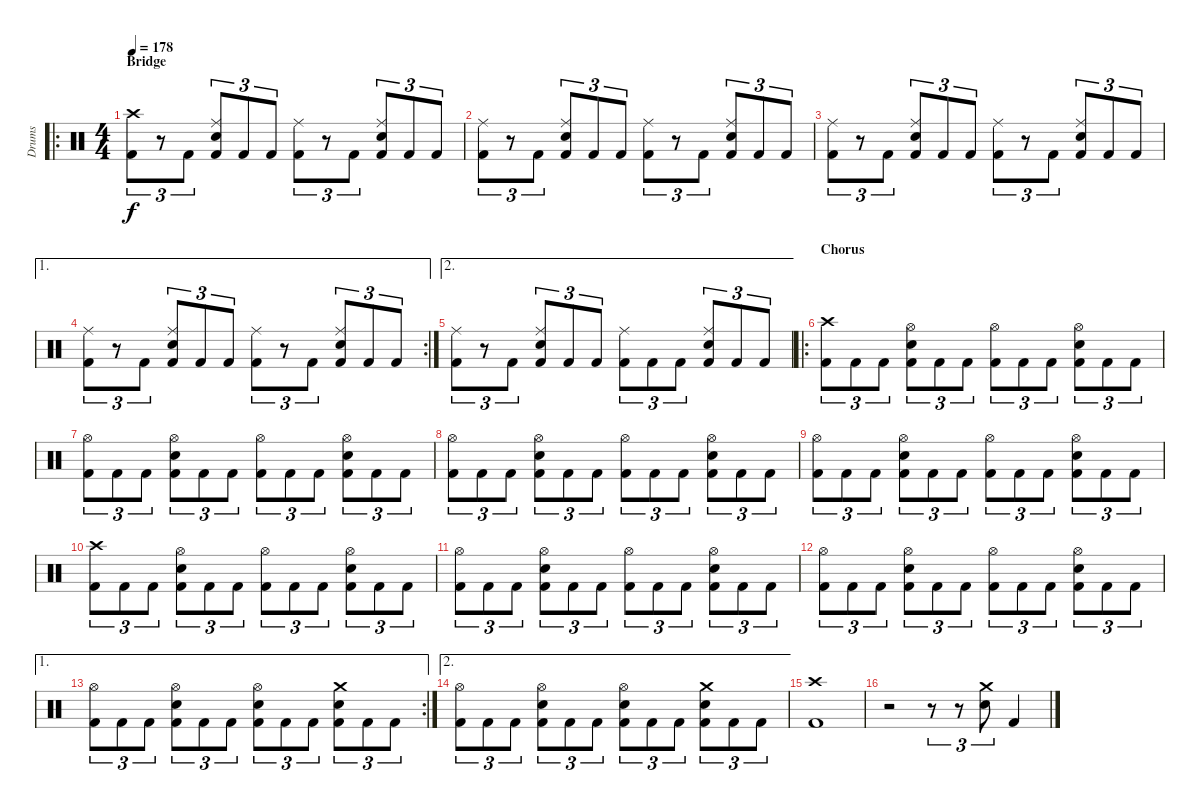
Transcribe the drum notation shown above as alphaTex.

\track ("Drums" "Drums") {instrument percussion}
\staff {score}
\articulation defaults
\ro
\ts (4 4)
\section ("" "Bridge")
\tempo 178
\clef neutral
\ks c
("Crash high (hit)" "Kick (hit) 2").8{tu (3 2) dy f} r.8{tu (3 2)} "Kick (hit) 2".8{tu (3 2)} ("Ride (middle)" "Electric Snare (hit)" "Kick (hit) 2").8{tu (3 2)} "Kick (hit) 2".8{tu (3 2)} "Kick (hit) 2".8{tu (3 2)} ("Ride (middle)" "Kick (hit) 2").8{tu (3 2)} r.8{tu (3 2)} "Kick (hit) 2".8{tu (3 2)} ("Ride (middle)" "Electric Snare (hit)" "Kick (hit) 2").8{tu (3 2)} "Kick (hit) 2".8{tu (3 2)} "Kick (hit) 2".8{tu (3 2)} |
("Ride (middle)" "Kick (hit) 2").8{tu (3 2)} r.8{tu (3 2)} "Kick (hit) 2".8{tu (3 2)} ("Ride (middle)" "Electric Snare (hit)" "Kick (hit) 2").8{tu (3 2)} "Kick (hit) 2".8{tu (3 2)} "Kick (hit) 2".8{tu (3 2)} ("Ride (middle)" "Kick (hit) 2").8{tu (3 2)} r.8{tu (3 2)} "Kick (hit) 2".8{tu (3 2)} ("Ride (middle)" "Electric Snare (hit)" "Kick (hit) 2").8{tu (3 2)} "Kick (hit) 2".8{tu (3 2)} "Kick (hit) 2".8{tu (3 2)} |
("Ride (middle)" "Kick (hit) 2").8{tu (3 2)} r.8{tu (3 2)} "Kick (hit) 2".8{tu (3 2)} ("Ride (middle)" "Electric Snare (hit)" "Kick (hit) 2").8{tu (3 2)} "Kick (hit) 2".8{tu (3 2)} "Kick (hit) 2".8{tu (3 2)} ("Ride (middle)" "Kick (hit) 2").8{tu (3 2)} r.8{tu (3 2)} "Kick (hit) 2".8{tu (3 2)} ("Ride (middle)" "Electric Snare (hit)" "Kick (hit) 2").8{tu (3 2)} "Kick (hit) 2".8{tu (3 2)} "Kick (hit) 2".8{tu (3 2)} |
\ae 1
\rc 2
("Ride (middle)" "Kick (hit) 2").8{tu (3 2)} r.8{tu (3 2)} "Kick (hit) 2".8{tu (3 2)} ("Ride (middle)" "Electric Snare (hit)" "Kick (hit) 2").8{tu (3 2)} "Kick (hit) 2".8{tu (3 2)} "Kick (hit) 2".8{tu (3 2)} ("Ride (middle)" "Kick (hit) 2").8{tu (3 2)} r.8{tu (3 2)} "Kick (hit) 2".8{tu (3 2)} ("Ride (middle)" "Electric Snare (hit)" "Kick (hit) 2").8{tu (3 2)} "Kick (hit) 2".8{tu (3 2)} "Kick (hit) 2".8{tu (3 2)} |
\ae 2
("Ride (middle)" "Kick (hit) 2").8{tu (3 2)} r.8{tu (3 2)} "Kick (hit) 2".8{tu (3 2)} ("Ride (middle)" "Electric Snare (hit)" "Kick (hit) 2").8{tu (3 2)} "Kick (hit) 2".8{tu (3 2)} "Kick (hit) 2".8{tu (3 2)} ("Ride (middle)" "Kick (hit) 2").8{tu (3 2)} "Kick (hit) 2".8{tu (3 2)} "Kick (hit) 2".8{tu (3 2)} ("Ride (middle)" "Electric Snare (hit)" "Kick (hit) 2").8{tu (3 2)} "Kick (hit) 2".8{tu (3 2)} "Kick (hit) 2".8{tu (3 2)} |
\ro
\section ("" "Chorus")
("Crash high (hit)" "Kick (hit) 2").8{tu (3 2)} "Kick (hit) 2".8{tu (3 2)} "Kick (hit) 2".8{tu (3 2)} ("Hi-Hat (open)" "Electric Snare (hit)" "Kick (hit) 2").8{tu (3 2)} "Kick (hit) 2".8{tu (3 2)} "Kick (hit) 2".8{tu (3 2)} ("Hi-Hat (open)" "Kick (hit) 2").8{tu (3 2)} "Kick (hit) 2".8{tu (3 2)} "Kick (hit) 2".8{tu (3 2)} ("Hi-Hat (open)" "Electric Snare (hit)" "Kick (hit) 2").8{tu (3 2)} "Kick (hit) 2".8{tu (3 2)} "Kick (hit) 2".8{tu (3 2)} |
("Hi-Hat (open)" "Kick (hit) 2").8{tu (3 2)} "Kick (hit) 2".8{tu (3 2)} "Kick (hit) 2".8{tu (3 2)} ("Hi-Hat (open)" "Electric Snare (hit)" "Kick (hit) 2").8{tu (3 2)} "Kick (hit) 2".8{tu (3 2)} "Kick (hit) 2".8{tu (3 2)} ("Hi-Hat (open)" "Kick (hit) 2").8{tu (3 2)} "Kick (hit) 2".8{tu (3 2)} "Kick (hit) 2".8{tu (3 2)} ("Hi-Hat (open)" "Electric Snare (hit)" "Kick (hit) 2").8{tu (3 2)} "Kick (hit) 2".8{tu (3 2)} "Kick (hit) 2".8{tu (3 2)} |
("Hi-Hat (open)" "Kick (hit) 2").8{tu (3 2)} "Kick (hit) 2".8{tu (3 2)} "Kick (hit) 2".8{tu (3 2)} ("Hi-Hat (open)" "Electric Snare (hit)" "Kick (hit) 2").8{tu (3 2)} "Kick (hit) 2".8{tu (3 2)} "Kick (hit) 2".8{tu (3 2)} ("Hi-Hat (open)" "Kick (hit) 2").8{tu (3 2)} "Kick (hit) 2".8{tu (3 2)} "Kick (hit) 2".8{tu (3 2)} ("Hi-Hat (open)" "Electric Snare (hit)" "Kick (hit) 2").8{tu (3 2)} "Kick (hit) 2".8{tu (3 2)} "Kick (hit) 2".8{tu (3 2)} |
("Hi-Hat (open)" "Kick (hit) 2").8{tu (3 2)} "Kick (hit) 2".8{tu (3 2)} "Kick (hit) 2".8{tu (3 2)} ("Hi-Hat (open)" "Electric Snare (hit)" "Kick (hit) 2").8{tu (3 2)} "Kick (hit) 2".8{tu (3 2)} "Kick (hit) 2".8{tu (3 2)} ("Hi-Hat (open)" "Kick (hit) 2").8{tu (3 2)} "Kick (hit) 2".8{tu (3 2)} "Kick (hit) 2".8{tu (3 2)} ("Hi-Hat (open)" "Electric Snare (hit)" "Kick (hit) 2").8{tu (3 2)} "Kick (hit) 2".8{tu (3 2)} "Kick (hit) 2".8{tu (3 2)} |
("Crash high (hit)" "Kick (hit) 2").8{tu (3 2)} "Kick (hit) 2".8{tu (3 2)} "Kick (hit) 2".8{tu (3 2)} ("Hi-Hat (open)" "Electric Snare (hit)" "Kick (hit) 2").8{tu (3 2)} "Kick (hit) 2".8{tu (3 2)} "Kick (hit) 2".8{tu (3 2)} ("Hi-Hat (open)" "Kick (hit) 2").8{tu (3 2)} "Kick (hit) 2".8{tu (3 2)} "Kick (hit) 2".8{tu (3 2)} ("Hi-Hat (open)" "Electric Snare (hit)" "Kick (hit) 2").8{tu (3 2)} "Kick (hit) 2".8{tu (3 2)} "Kick (hit) 2".8{tu (3 2)} |
("Hi-Hat (open)" "Kick (hit) 2").8{tu (3 2)} "Kick (hit) 2".8{tu (3 2)} "Kick (hit) 2".8{tu (3 2)} ("Hi-Hat (open)" "Electric Snare (hit)" "Kick (hit) 2").8{tu (3 2)} "Kick (hit) 2".8{tu (3 2)} "Kick (hit) 2".8{tu (3 2)} ("Hi-Hat (open)" "Kick (hit) 2").8{tu (3 2)} "Kick (hit) 2".8{tu (3 2)} "Kick (hit) 2".8{tu (3 2)} ("Hi-Hat (open)" "Electric Snare (hit)" "Kick (hit) 2").8{tu (3 2)} "Kick (hit) 2".8{tu (3 2)} "Kick (hit) 2".8{tu (3 2)} |
("Hi-Hat (open)" "Kick (hit) 2").8{tu (3 2)} "Kick (hit) 2".8{tu (3 2)} "Kick (hit) 2".8{tu (3 2)} ("Hi-Hat (open)" "Electric Snare (hit)" "Kick (hit) 2").8{tu (3 2)} "Kick (hit) 2".8{tu (3 2)} "Kick (hit) 2".8{tu (3 2)} ("Hi-Hat (open)" "Kick (hit) 2").8{tu (3 2)} "Kick (hit) 2".8{tu (3 2)} "Kick (hit) 2".8{tu (3 2)} ("Hi-Hat (open)" "Electric Snare (hit)" "Kick (hit) 2").8{tu (3 2)} "Kick (hit) 2".8{tu (3 2)} "Kick (hit) 2".8{tu (3 2)} |
\ae 1
\rc 2
("Hi-Hat (open)" "Kick (hit) 2").8{tu (3 2)} "Kick (hit) 2".8{tu (3 2)} "Kick (hit) 2".8{tu (3 2)} ("Hi-Hat (open)" "Electric Snare (hit)" "Kick (hit) 2").8{tu (3 2)} "Kick (hit) 2".8{tu (3 2)} "Kick (hit) 2".8{tu (3 2)} ("Hi-Hat (open)" "Electric Snare (hit)" "Kick (hit) 2").8{tu (3 2)} "Kick (hit) 2".8{tu (3 2)} "Kick (hit) 2".8{tu (3 2)} ("Crash medium (hit)" "Electric Snare (hit)" "Kick (hit) 2").8{tu (3 2)} "Kick (hit) 2".8{tu (3 2)} "Kick (hit) 2".8{tu (3 2)} |
\ae 2
("Hi-Hat (open)" "Kick (hit) 2").8{tu (3 2)} "Kick (hit) 2".8{tu (3 2)} "Kick (hit) 2".8{tu (3 2)} ("Hi-Hat (open)" "Electric Snare (hit)" "Kick (hit) 2").8{tu (3 2)} "Kick (hit) 2".8{tu (3 2)} "Kick (hit) 2".8{tu (3 2)} ("Hi-Hat (open)" "Electric Snare (hit)" "Kick (hit) 2").8{tu (3 2)} "Kick (hit) 2".8{tu (3 2)} "Kick (hit) 2".8{tu (3 2)} ("Crash medium (hit)" "Electric Snare (hit)" "Kick (hit) 2").8{tu (3 2)} "Kick (hit) 2".8{tu (3 2)} "Kick (hit) 2".8{tu (3 2)} |
("Crash high (hit)" "Kick (hit) 2").1 |
r.2 r.8{tu (3 2)} r.8{tu (3 2)} ("Crash medium (hit)" "Electric Snare (hit)").8{tu (3 2)} "Kick (hit) 2".4
